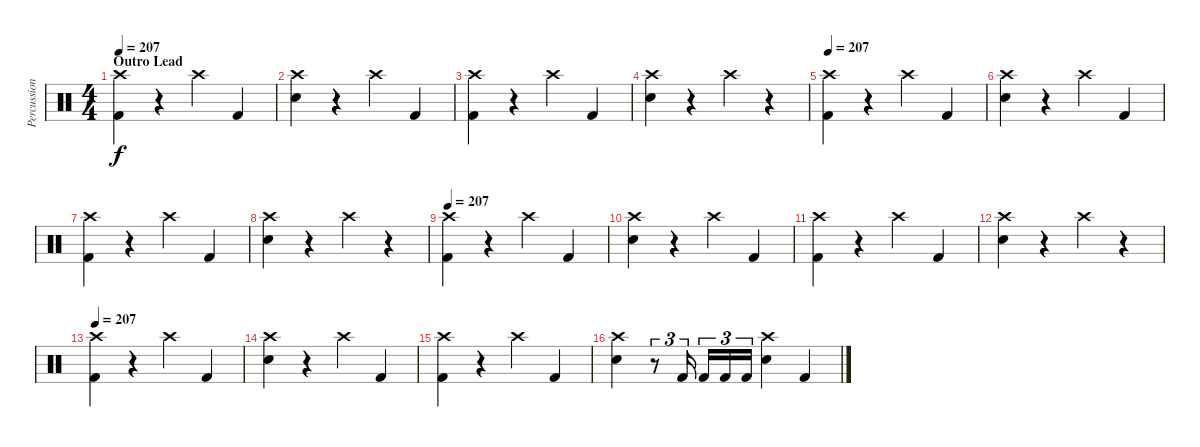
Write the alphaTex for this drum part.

\track ("Percussion" "Percussion") {instrument percussion}
\staff {score}
\articulation defaults
\ts (4 4)
\section ("" "Outro Lead")
\tempo 207
\clef neutral
\ks c
("Crash high (hit)" "Kick (hit) 2").4{dy f} r.4 "Crash high (hit)".4 "Kick (hit) 2".4 |
("Crash high (hit)" "Electric Snare (hit)").4 r.4 "Crash high (hit)".4 "Kick (hit) 2".4 |
("Crash high (hit)" "Kick (hit) 2").4 r.4 "Crash high (hit)".4 "Kick (hit) 2".4 |
("Crash high (hit)" "Electric Snare (hit)").4 r.4 "Crash high (hit)".4 r.4 |
\tempo 207
("Crash high (hit)" "Kick (hit) 2").4 r.4 "Crash high (hit)".4 "Kick (hit) 2".4 |
("Crash high (hit)" "Electric Snare (hit)").4 r.4 "Crash high (hit)".4 "Kick (hit) 2".4 |
("Crash high (hit)" "Kick (hit) 2").4 r.4 "Crash high (hit)".4 "Kick (hit) 2".4 |
("Crash high (hit)" "Electric Snare (hit)").4 r.4 "Crash high (hit)".4 r.4 |
\tempo 207
("Crash high (hit)" "Kick (hit) 2").4 r.4 "Crash high (hit)".4 "Kick (hit) 2".4 |
("Crash high (hit)" "Electric Snare (hit)").4 r.4 "Crash high (hit)".4 "Kick (hit) 2".4 |
("Crash high (hit)" "Kick (hit) 2").4 r.4 "Crash high (hit)".4 "Kick (hit) 2".4 |
("Crash high (hit)" "Electric Snare (hit)").4 r.4 "Crash high (hit)".4 r.4 |
\tempo 207
("Crash high (hit)" "Kick (hit) 2").4 r.4 "Crash high (hit)".4 "Kick (hit) 2".4 |
("Crash high (hit)" "Electric Snare (hit)").4 r.4 "Crash high (hit)".4 "Kick (hit) 2".4 |
("Crash high (hit)" "Kick (hit) 2").4 r.4 "Crash high (hit)".4 "Kick (hit) 2".4 |
("Crash high (hit)" "Electric Snare (hit)").4 r.8{tu (3 2)} "Kick (hit) 2".16{tu (3 2) beam splitsecondary} "Kick (hit) 2".16{tu (3 2)} "Kick (hit) 2".16{tu (3 2)} "Kick (hit) 2".16{tu (3 2)} ("Crash high (hit)" "Electric Snare (hit)").4 "Kick (hit) 2".4
